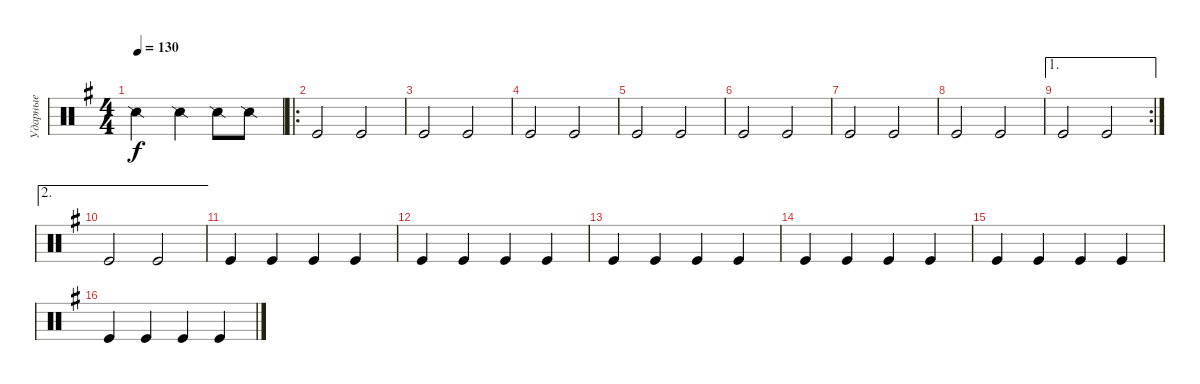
\track ("Ударные" "Ударные") {instrument percussion}
\staff {score}
\articulation defaults
\ts (4 4)
\tempo 130
\clef neutral
\ks g "Snare (side stick) 2".2{dy f} "Snare (side stick) 2".4 "Snare (side stick) 2".8 "Snare (side stick) 2".8
|
\ro "Kick (hit)".2 "Kick (hit)".2
|
"Kick (hit)".2 "Kick (hit)".2 |
"Kick (hit)".2 "Kick (hit)".2 |
"Kick (hit)".2 "Kick (hit)".2 |
"Kick (hit)".2 "Kick (hit)".2 |
"Kick (hit)".2 "Kick (hit)".2 |
"Kick (hit)".2 "Kick (hit)".2 |
\ae 1
\rc 2 "Kick (hit)".2 "Kick (hit)".2
|
\ae 2 "Kick (hit)".2 "Kick (hit)".2
|
"Kick (hit)".4 "Kick (hit)".4 "Kick (hit)".4 "Kick (hit)".4 |
"Kick (hit)".4 "Kick (hit)".4 "Kick (hit)".4 "Kick (hit)".4 |
"Kick (hit)".4 "Kick (hit)".4 "Kick (hit)".4 "Kick (hit)".4 |
"Kick (hit)".4 "Kick (hit)".4 "Kick (hit)".4 "Kick (hit)".4 |
"Kick (hit)".4 "Kick (hit)".4 "Kick (hit)".4 "Kick (hit)".4 |
"Kick (hit)".4 "Kick (hit)".4 "Kick (hit)".4 "Kick (hit)".4
